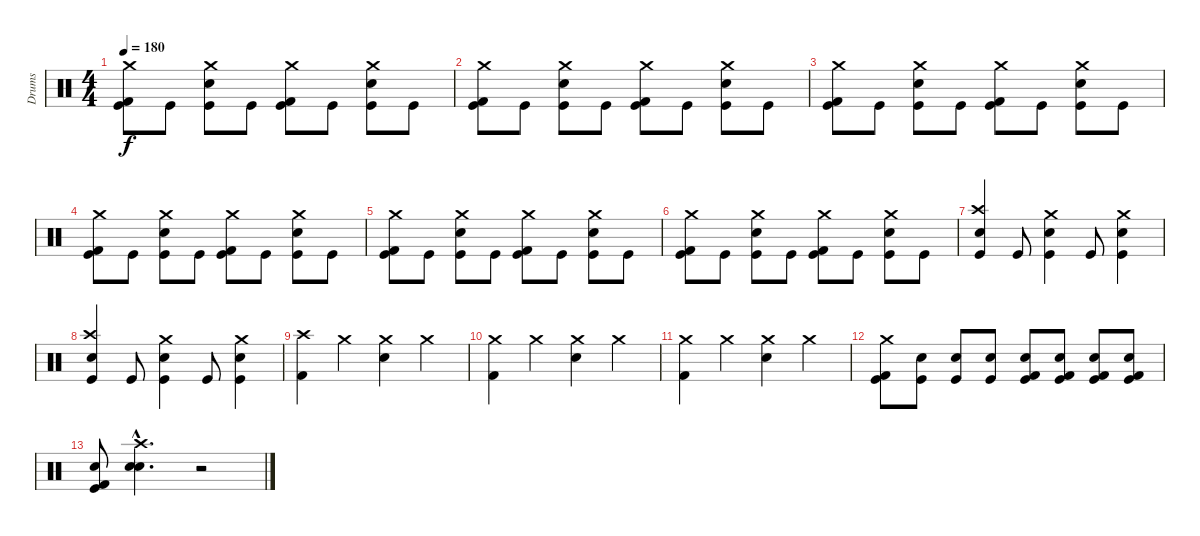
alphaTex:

\track ("Drums" "Drums") {instrument percussion}
\staff {score}
\articulation defaults
\ts (4 4)
\tempo 180
\clef neutral
\ks c
("Crash medium (hit)" "Kick (hit)" "Kick (hit) 2").8{dy f} "Kick (hit)".8 ("Crash medium (hit)" "Kick (hit)" "Electric Snare (hit)").8 "Kick (hit)".8 ("Crash medium (hit)" "Kick (hit)" "Kick (hit) 2").8 "Kick (hit)".8 ("Crash medium (hit)" "Kick (hit)" "Electric Snare (hit)").8 "Kick (hit)".8 |
("Crash medium (hit)" "Kick (hit)" "Kick (hit) 2").8 "Kick (hit)".8 ("Crash medium (hit)" "Kick (hit)" "Electric Snare (hit)").8 "Kick (hit)".8 ("Crash medium (hit)" "Kick (hit)" "Kick (hit) 2").8 "Kick (hit)".8 ("Crash medium (hit)" "Kick (hit)" "Electric Snare (hit)").8 "Kick (hit)".8 |
("Crash medium (hit)" "Kick (hit)" "Kick (hit) 2").8 "Kick (hit)".8 ("Crash medium (hit)" "Kick (hit)" "Electric Snare (hit)").8 "Kick (hit)".8 ("Crash medium (hit)" "Kick (hit)" "Kick (hit) 2").8 "Kick (hit)".8 ("Crash medium (hit)" "Kick (hit)" "Electric Snare (hit)").8 "Kick (hit)".8 |
("Crash medium (hit)" "Kick (hit)" "Kick (hit) 2").8 "Kick (hit)".8 ("Crash medium (hit)" "Kick (hit)" "Electric Snare (hit)").8 "Kick (hit)".8 ("Crash medium (hit)" "Kick (hit)" "Kick (hit) 2").8 "Kick (hit)".8 ("Crash medium (hit)" "Kick (hit)" "Electric Snare (hit)").8 "Kick (hit)".8 |
("Crash medium (hit)" "Kick (hit)" "Kick (hit) 2").8 "Kick (hit)".8 ("Crash medium (hit)" "Kick (hit)" "Electric Snare (hit)").8 "Kick (hit)".8 ("Crash medium (hit)" "Kick (hit)" "Kick (hit) 2").8 "Kick (hit)".8 ("Crash medium (hit)" "Kick (hit)" "Electric Snare (hit)").8 "Kick (hit)".8 |
("Crash medium (hit)" "Kick (hit)" "Kick (hit) 2").8 "Kick (hit)".8 ("Crash medium (hit)" "Kick (hit)" "Electric Snare (hit)").8 "Kick (hit)".8 ("Crash medium (hit)" "Kick (hit)" "Kick (hit) 2").8 "Kick (hit)".8 ("Crash medium (hit)" "Kick (hit)" "Electric Snare (hit)").8 "Kick (hit)".8 |
("Crash high (hit)" "Kick (hit)" "Snare (hit) 2").4 "Kick (hit)".8 ("Crash medium (hit)" "Kick (hit)" "Snare (hit) 2").4 "Kick (hit)".8 ("Crash medium (hit)" "Kick (hit)" "Snare (hit) 2").4 |
("Crash high (hit)" "Kick (hit)" "Snare (hit) 2").4 "Kick (hit)".8 ("Crash medium (hit)" "Kick (hit)" "Snare (hit) 2").4 "Kick (hit)".8 ("Crash medium (hit)" "Kick (hit)" "Snare (hit) 2").4 |
("Crash high (hit)" "Kick (hit) 2").4 "Crash medium (hit)".4 ("Crash medium (hit)" "Snare (hit) 2").4 "Crash medium (hit)".4 |
("Crash medium (hit)" "Kick (hit) 2").4 "Crash medium (hit)".4 ("Crash medium (hit)" "Snare (hit) 2").4 "Crash medium (hit)".4 |
("Crash medium (hit)" "Kick (hit) 2").4 "Crash medium (hit)".4 ("Crash medium (hit)" "Snare (hit) 2").4 "Crash medium (hit)".4 |
("Crash medium (hit)" "Kick (hit)" "Kick (hit) 2").8 ("Kick (hit)" "Snare (hit) 2").8 ("Kick (hit)" "Snare (hit) 2").8 ("Kick (hit)" "Snare (hit) 2").8 ("Kick (hit)" "Kick (hit) 2" "Electric Snare (hit)").8 ("Kick (hit)" "Kick (hit) 2" "Electric Snare (hit)").8 ("Kick (hit)" "Kick (hit) 2" "Electric Snare (hit)").8 ("Kick (hit)" "Kick (hit) 2" "Electric Snare (hit)").8 |
("Kick (hit)" "Kick (hit) 2" "Electric Snare (hit)").8 ("Crash high (hit)"{hac} "Electric Snare (hit)"{hac} "Snare (hit) 2"{hac}).4{d} r.2
